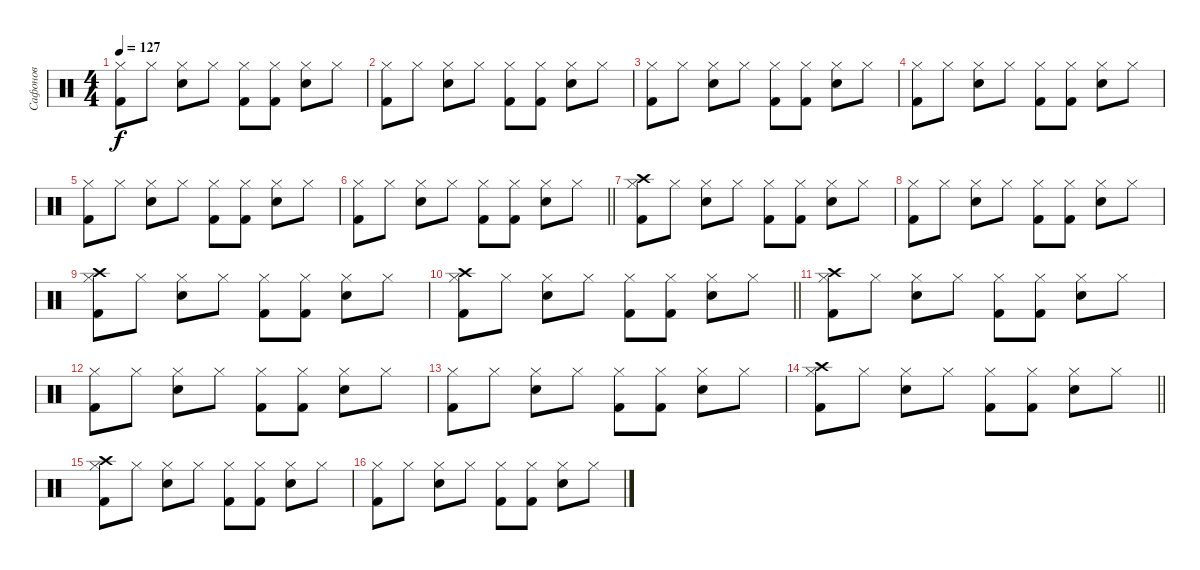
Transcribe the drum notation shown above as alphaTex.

\track ("Сафонов" "Сафонов") {instrument percussion}
\staff {score}
\articulation defaults
\ts (4 4)
\tempo 127
\clef neutral
\ks c
("Hi-Hat (closed)" "Kick (hit) 2").8{dy f} "Hi-Hat (closed)".8 ("Hi-Hat (closed)" "Electric Snare (hit)").8 "Hi-Hat (closed)".8 ("Hi-Hat (closed)" "Kick (hit) 2").8 ("Hi-Hat (closed)" "Kick (hit) 2").8 ("Hi-Hat (closed)" "Electric Snare (hit)").8 "Hi-Hat (closed)".8 |
("Hi-Hat (closed)" "Kick (hit) 2").8 "Hi-Hat (closed)".8 ("Hi-Hat (closed)" "Electric Snare (hit)").8 "Hi-Hat (closed)".8 ("Hi-Hat (closed)" "Kick (hit) 2").8 ("Hi-Hat (closed)" "Kick (hit) 2").8 ("Hi-Hat (closed)" "Electric Snare (hit)").8 "Hi-Hat (closed)".8 |
("Hi-Hat (closed)" "Kick (hit) 2").8 "Hi-Hat (closed)".8 ("Hi-Hat (closed)" "Electric Snare (hit)").8 "Hi-Hat (closed)".8 ("Hi-Hat (closed)" "Kick (hit) 2").8 ("Hi-Hat (closed)" "Kick (hit) 2").8 ("Hi-Hat (closed)" "Electric Snare (hit)").8 "Hi-Hat (closed)".8 |
("Hi-Hat (closed)" "Kick (hit) 2").8 "Hi-Hat (closed)".8 ("Hi-Hat (closed)" "Electric Snare (hit)").8 "Hi-Hat (closed)".8 ("Hi-Hat (closed)" "Kick (hit) 2").8 ("Hi-Hat (closed)" "Kick (hit) 2").8 ("Hi-Hat (closed)" "Electric Snare (hit)").8 "Hi-Hat (closed)".8 |
("Hi-Hat (closed)" "Kick (hit) 2").8 "Hi-Hat (closed)".8 ("Hi-Hat (closed)" "Electric Snare (hit)").8 "Hi-Hat (closed)".8 ("Hi-Hat (closed)" "Kick (hit) 2").8 ("Hi-Hat (closed)" "Kick (hit) 2").8 ("Hi-Hat (closed)" "Electric Snare (hit)").8 "Hi-Hat (closed)".8 |
\barLineRight lightlight
("Hi-Hat (closed)" "Kick (hit) 2").8 "Hi-Hat (closed)".8 ("Hi-Hat (closed)" "Electric Snare (hit)").8 "Hi-Hat (closed)".8 ("Hi-Hat (closed)" "Kick (hit) 2").8 ("Hi-Hat (closed)" "Kick (hit) 2").8 ("Hi-Hat (closed)" "Electric Snare (hit)").8 "Hi-Hat (closed)".8 |
("Crash high (hit)" "Hi-Hat (closed)" "Kick (hit) 2").8 "Hi-Hat (closed)".8 ("Hi-Hat (closed)" "Electric Snare (hit)").8 "Hi-Hat (closed)".8 ("Hi-Hat (closed)" "Kick (hit) 2").8 ("Hi-Hat (closed)" "Kick (hit) 2").8 ("Hi-Hat (closed)" "Electric Snare (hit)").8 "Hi-Hat (closed)".8 |
("Hi-Hat (closed)" "Kick (hit) 2").8 "Hi-Hat (closed)".8 ("Hi-Hat (closed)" "Electric Snare (hit)").8 "Hi-Hat (closed)".8 ("Hi-Hat (closed)" "Kick (hit) 2").8 ("Hi-Hat (closed)" "Kick (hit) 2").8 ("Hi-Hat (closed)" "Electric Snare (hit)").8 "Hi-Hat (closed)".8 |
("Crash high (hit)" "Hi-Hat (closed)" "Kick (hit) 2").8 "Hi-Hat (closed)".8 ("Hi-Hat (closed)" "Electric Snare (hit)").8 "Hi-Hat (closed)".8 ("Hi-Hat (closed)" "Kick (hit) 2").8 ("Hi-Hat (closed)" "Kick (hit) 2").8 ("Hi-Hat (closed)" "Electric Snare (hit)").8 "Hi-Hat (closed)".8 |
\barLineRight lightlight
("Crash high (hit)" "Hi-Hat (closed)" "Kick (hit) 2").8 "Hi-Hat (closed)".8 ("Hi-Hat (closed)" "Electric Snare (hit)").8 "Hi-Hat (closed)".8 ("Hi-Hat (closed)" "Kick (hit) 2").8 ("Hi-Hat (closed)" "Kick (hit) 2").8 ("Hi-Hat (closed)" "Electric Snare (hit)").8 "Hi-Hat (closed)".8 |
("Crash high (hit)" "Hi-Hat (closed)" "Kick (hit) 2").8 "Hi-Hat (closed)".8 ("Hi-Hat (closed)" "Electric Snare (hit)").8 "Hi-Hat (closed)".8 ("Hi-Hat (closed)" "Kick (hit) 2").8 ("Hi-Hat (closed)" "Kick (hit) 2").8 ("Hi-Hat (closed)" "Electric Snare (hit)").8 "Hi-Hat (closed)".8 |
("Hi-Hat (closed)" "Kick (hit) 2").8 "Hi-Hat (closed)".8 ("Hi-Hat (closed)" "Electric Snare (hit)").8 "Hi-Hat (closed)".8 ("Hi-Hat (closed)" "Kick (hit) 2").8 ("Hi-Hat (closed)" "Kick (hit) 2").8 ("Hi-Hat (closed)" "Electric Snare (hit)").8 "Hi-Hat (closed)".8 |
("Hi-Hat (closed)" "Kick (hit) 2").8 "Hi-Hat (closed)".8 ("Hi-Hat (closed)" "Electric Snare (hit)").8 "Hi-Hat (closed)".8 ("Hi-Hat (closed)" "Kick (hit) 2").8 ("Hi-Hat (closed)" "Kick (hit) 2").8 ("Hi-Hat (closed)" "Electric Snare (hit)").8 "Hi-Hat (closed)".8 |
\barLineRight lightlight
("Crash high (hit)" "Hi-Hat (closed)" "Kick (hit) 2").8 "Hi-Hat (closed)".8 ("Hi-Hat (closed)" "Electric Snare (hit)").8 "Hi-Hat (closed)".8 ("Hi-Hat (closed)" "Kick (hit) 2").8 ("Hi-Hat (closed)" "Kick (hit) 2").8 ("Hi-Hat (closed)" "Electric Snare (hit)").8 "Hi-Hat (closed)".8 |
("Crash high (hit)" "Hi-Hat (closed)" "Kick (hit) 2").8 "Hi-Hat (closed)".8 ("Hi-Hat (closed)" "Electric Snare (hit)").8 "Hi-Hat (closed)".8 ("Hi-Hat (closed)" "Kick (hit) 2").8 ("Hi-Hat (closed)" "Kick (hit) 2").8 ("Hi-Hat (closed)" "Electric Snare (hit)").8 "Hi-Hat (closed)".8 |
("Hi-Hat (closed)" "Kick (hit) 2").8 "Hi-Hat (closed)".8 ("Hi-Hat (closed)" "Electric Snare (hit)").8 "Hi-Hat (closed)".8 ("Hi-Hat (closed)" "Kick (hit) 2").8 ("Hi-Hat (closed)" "Kick (hit) 2").8 ("Hi-Hat (closed)" "Electric Snare (hit)").8 "Hi-Hat (closed)".8
